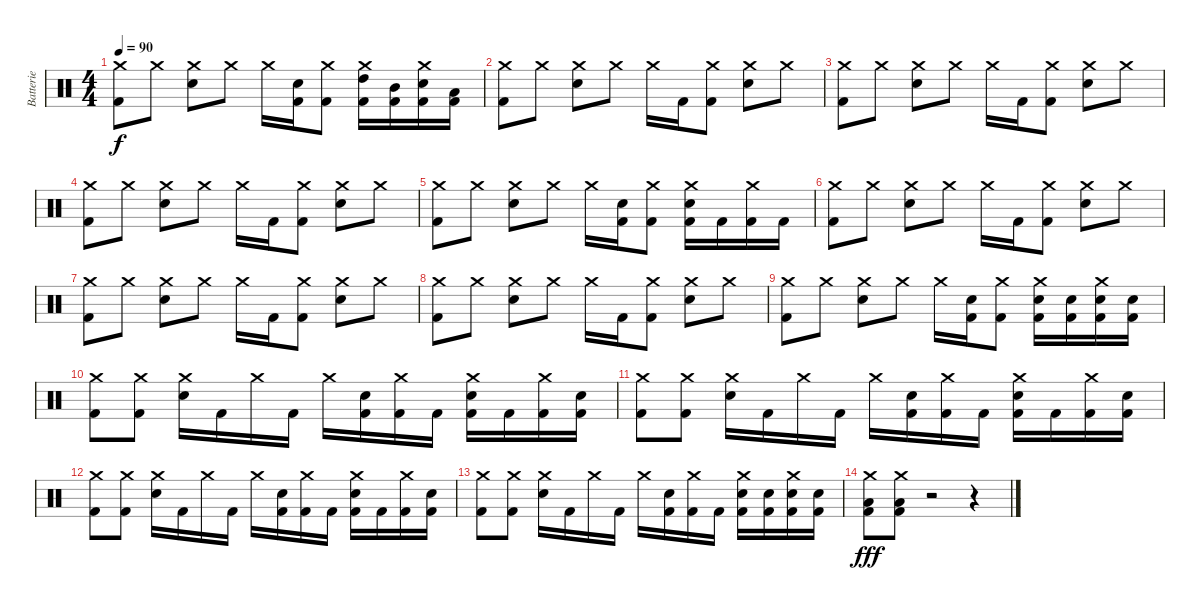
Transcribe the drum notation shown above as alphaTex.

\track ("Batterie" "Batterie") {instrument percussion}
\staff {score}
\articulation defaults
\ts (4 4)
\tempo 90
\clef neutral
\ks c
("Crash medium (hit)" "Kick (hit) 2").8{dy f} "Crash medium (hit)".8 ("Crash medium (hit)" "Snare (hit) 2").8 "Crash medium (hit)".8 "Crash medium (hit)".16 ("Snare (hit) 2" "Kick (hit) 2").16 ("Crash medium (hit)" "Kick (hit) 2").8 ("Crash medium (hit)" "High Tom (hit)" "Kick (hit) 2").16 ("Mid Tom (hit)" "Kick (hit) 2").16 ("Crash medium (hit)" "Snare (hit) 2" "Kick (hit) 2").16 ("Low Tom (hit)" "Kick (hit) 2").16 |
("Crash medium (hit)" "Kick (hit) 2").8 "Crash medium (hit)".8 ("Crash medium (hit)" "Snare (hit) 2").8 "Crash medium (hit)".8 "Crash medium (hit)".16 "Kick (hit) 2".16 ("Crash medium (hit)" "Kick (hit) 2").8 ("Crash medium (hit)" "Snare (hit) 2").8 "Crash medium (hit)".8 |
("Crash medium (hit)" "Kick (hit) 2").8 "Crash medium (hit)".8 ("Crash medium (hit)" "Snare (hit) 2").8 "Crash medium (hit)".8 "Crash medium (hit)".16 "Kick (hit) 2".16 ("Crash medium (hit)" "Kick (hit) 2").8 ("Crash medium (hit)" "Snare (hit) 2").8 "Crash medium (hit)".8 |
("Crash medium (hit)" "Kick (hit) 2").8 "Crash medium (hit)".8 ("Crash medium (hit)" "Snare (hit) 2").8 "Crash medium (hit)".8 "Crash medium (hit)".16 "Kick (hit) 2".16 ("Crash medium (hit)" "Kick (hit) 2").8 ("Crash medium (hit)" "Snare (hit) 2").8 "Crash medium (hit)".8 |
("Crash medium (hit)" "Kick (hit) 2").8 "Crash medium (hit)".8 ("Crash medium (hit)" "Snare (hit) 2").8 "Crash medium (hit)".8 "Crash medium (hit)".16 ("Snare (hit) 2" "Kick (hit) 2").16 ("Crash medium (hit)" "Kick (hit) 2").8 ("Crash medium (hit)" "Snare (hit) 2" "Kick (hit) 2").16 "Kick (hit) 2".16 ("Crash medium (hit)" "Kick (hit) 2").16 "Kick (hit) 2".16 |
("Crash medium (hit)" "Kick (hit) 2").8 "Crash medium (hit)".8 ("Crash medium (hit)" "Snare (hit) 2").8 "Crash medium (hit)".8 "Crash medium (hit)".16 "Kick (hit) 2".16 ("Crash medium (hit)" "Kick (hit) 2").8 ("Crash medium (hit)" "Snare (hit) 2").8 "Crash medium (hit)".8 |
("Crash medium (hit)" "Kick (hit) 2").8 "Crash medium (hit)".8 ("Crash medium (hit)" "Snare (hit) 2").8 "Crash medium (hit)".8 "Crash medium (hit)".16 "Kick (hit) 2".16 ("Crash medium (hit)" "Kick (hit) 2").8 ("Crash medium (hit)" "Snare (hit) 2").8 "Crash medium (hit)".8 |
("Crash medium (hit)" "Kick (hit) 2").8 "Crash medium (hit)".8 ("Crash medium (hit)" "Snare (hit) 2").8 "Crash medium (hit)".8 "Crash medium (hit)".16 "Kick (hit) 2".16 ("Crash medium (hit)" "Kick (hit) 2").8 ("Crash medium (hit)" "Snare (hit) 2").8 "Crash medium (hit)".8 |
("Crash medium (hit)" "Kick (hit) 2").8 "Crash medium (hit)".8 ("Crash medium (hit)" "Snare (hit) 2").8 "Crash medium (hit)".8 "Crash medium (hit)".16 ("Snare (hit) 2" "Kick (hit) 2").16 ("Crash medium (hit)" "Kick (hit) 2").8 ("Crash medium (hit)" "Snare (hit) 2" "Kick (hit) 2").16 ("Snare (hit) 2" "Kick (hit) 2").16 ("Crash medium (hit)" "Snare (hit) 2" "Kick (hit) 2").16 ("Snare (hit) 2" "Kick (hit) 2").16 |
("Crash medium (hit)" "Kick (hit) 2").8 ("Crash medium (hit)" "Kick (hit) 2").8 ("Crash medium (hit)" "Snare (hit) 2").16 "Kick (hit) 2".16 "Crash medium (hit)".16 "Kick (hit) 2".16 "Crash medium (hit)".16 ("Snare (hit) 2" "Kick (hit) 2").16 ("Crash medium (hit)" "Kick (hit) 2").16 "Kick (hit) 2".16 ("Crash medium (hit)" "Snare (hit) 2" "Kick (hit) 2").16 "Kick (hit) 2".16 ("Crash medium (hit)" "Kick (hit) 2").16 ("Snare (hit) 2" "Kick (hit) 2").16 |
("Crash medium (hit)" "Kick (hit) 2").8 ("Crash medium (hit)" "Kick (hit) 2").8 ("Crash medium (hit)" "Snare (hit) 2").16 "Kick (hit) 2".16 "Crash medium (hit)".16 "Kick (hit) 2".16 "Crash medium (hit)".16 ("Snare (hit) 2" "Kick (hit) 2").16 ("Crash medium (hit)" "Kick (hit) 2").16 "Kick (hit) 2".16 ("Crash medium (hit)" "Snare (hit) 2" "Kick (hit) 2").16 "Kick (hit) 2".16 ("Crash medium (hit)" "Kick (hit) 2").16 ("Snare (hit) 2" "Kick (hit) 2").16 |
("Crash medium (hit)" "Kick (hit) 2").8 ("Crash medium (hit)" "Kick (hit) 2").8 ("Crash medium (hit)" "Snare (hit) 2").16 "Kick (hit) 2".16 "Crash medium (hit)".16 "Kick (hit) 2".16 "Crash medium (hit)".16 ("Snare (hit) 2" "Kick (hit) 2").16 ("Crash medium (hit)" "Kick (hit) 2").16 "Kick (hit) 2".16 ("Crash medium (hit)" "Snare (hit) 2" "Kick (hit) 2").16 "Kick (hit) 2".16 ("Crash medium (hit)" "Kick (hit) 2").16 ("Snare (hit) 2" "Kick (hit) 2").16 |
("Crash medium (hit)" "Kick (hit) 2").8 ("Crash medium (hit)" "Kick (hit) 2").8 ("Crash medium (hit)" "Snare (hit) 2").16 "Kick (hit) 2".16 "Crash medium (hit)".16 "Kick (hit) 2".16 "Crash medium (hit)".16 ("Snare (hit) 2" "Kick (hit) 2").16 ("Crash medium (hit)" "Kick (hit) 2").16 "Kick (hit) 2".16 ("Crash medium (hit)" "Snare (hit) 2" "Kick (hit) 2").16 ("Snare (hit) 2" "Kick (hit) 2").16 ("Crash medium (hit)" "Snare (hit) 2" "Kick (hit) 2").16 ("Snare (hit) 2" "Kick (hit) 2").16 |
("Crash medium (hit)" "Low Tom (hit)" "Kick (hit) 2").8{dy fff} ("Crash medium (hit)" "Low Tom (hit)" "Kick (hit) 2").8 r.2 r.4
